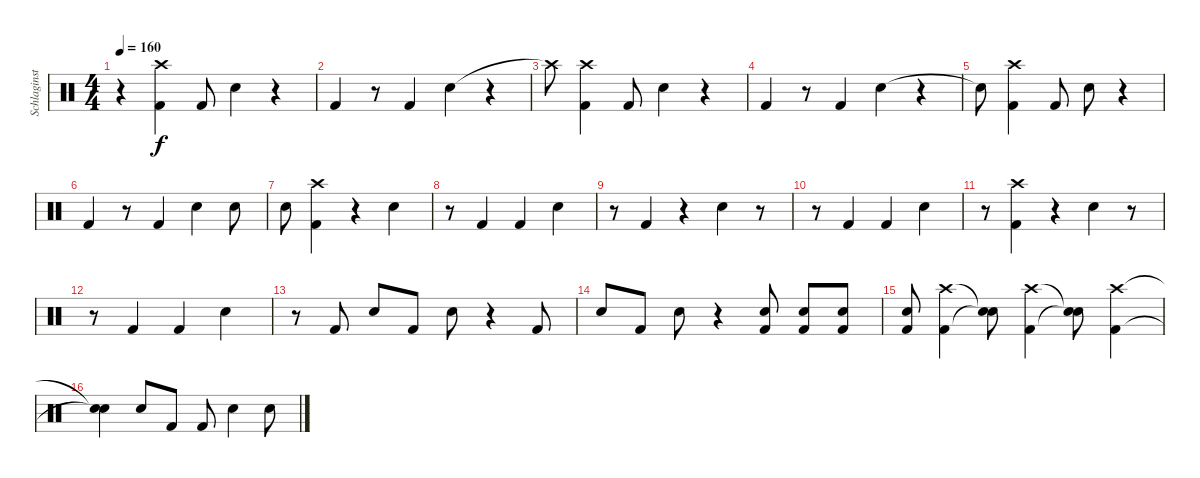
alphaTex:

\track ("Schlaginstrumente - Auswahl" "Schlaginst") {instrument percussion}
\staff {score}
\articulation defaults
\ts (4 4)
\tempo 160
\clef neutral
\ks c
r.4{dy f} ("Crash high (hit)" "Kick (hit) 2").4 "Kick (hit) 2".8 "Electric Snare (hit)".4 r.4 |
"Kick (hit) 2".4 r.8 "Kick (hit) 2".4 "Electric Snare (hit)".4 r.4 |
"Crash high (hit)"{t}.8 ("Crash high (hit)" "Kick (hit) 2").4 "Kick (hit) 2".8 "Electric Snare (hit)".4 r.4 |
"Kick (hit) 2".4 r.8 "Kick (hit) 2".4 "Electric Snare (hit)".4 r.4 |
"Snare (hit)"{t}.8 ("Crash high (hit)" "Kick (hit) 2").4 "Kick (hit) 2".8 "Electric Snare (hit)".8 r.4 |
"Kick (hit) 2".4 r.8 "Kick (hit) 2".4 "Electric Snare (hit)".4 "Electric Snare (hit)".8 |
"Electric Snare (hit)".8 ("Crash high (hit)" "Kick (hit) 2").4 r.4 "Electric Snare (hit)".4 |
r.8 "Kick (hit) 2".4 "Kick (hit) 2".4 "Electric Snare (hit)".4 |
r.8 "Kick (hit) 2".4 r.4 "Electric Snare (hit)".4 r.8 |
r.8 "Kick (hit) 2".4 "Kick (hit) 2".4 "Electric Snare (hit)".4 |
r.8 ("Crash high (hit)" "Kick (hit) 2").4 r.4 "Electric Snare (hit)".4 r.8 |
r.8 "Kick (hit) 2".4 "Kick (hit) 2".4 "Electric Snare (hit)".4 |
r.8 "Kick (hit) 2".8 "Electric Snare (hit)".8 "Kick (hit) 2".8 "Electric Snare (hit)".8 r.4 "Kick (hit) 2".8 |
"Electric Snare (hit)".8 "Kick (hit) 2".8 "Electric Snare (hit)".8 r.4 ("Electric Snare (hit)" "Kick (hit) 2").8 ("Electric Snare (hit)" "Kick (hit) 2").8 ("Electric Snare (hit)" "Kick (hit) 2").8 |
("Electric Snare (hit)" "Kick (hit) 2").8 ("Crash high (hit)" "Kick (hit) 2").4 ("Snare (hit)"{t} "Snare (hit)"{t}).8 ("Crash high (hit)" "Kick (hit) 2").4 ("Snare (hit)"{t} "Snare (hit)"{t}).8 ("Crash high (hit)" "Kick (hit) 2").4 |
("Snare (hit)"{t} "Snare (hit)"{t}).4 "Electric Snare (hit)".8 "Kick (hit) 2".8 "Kick (hit) 2".8 "Electric Snare (hit)".4 "Electric Snare (hit)".8
